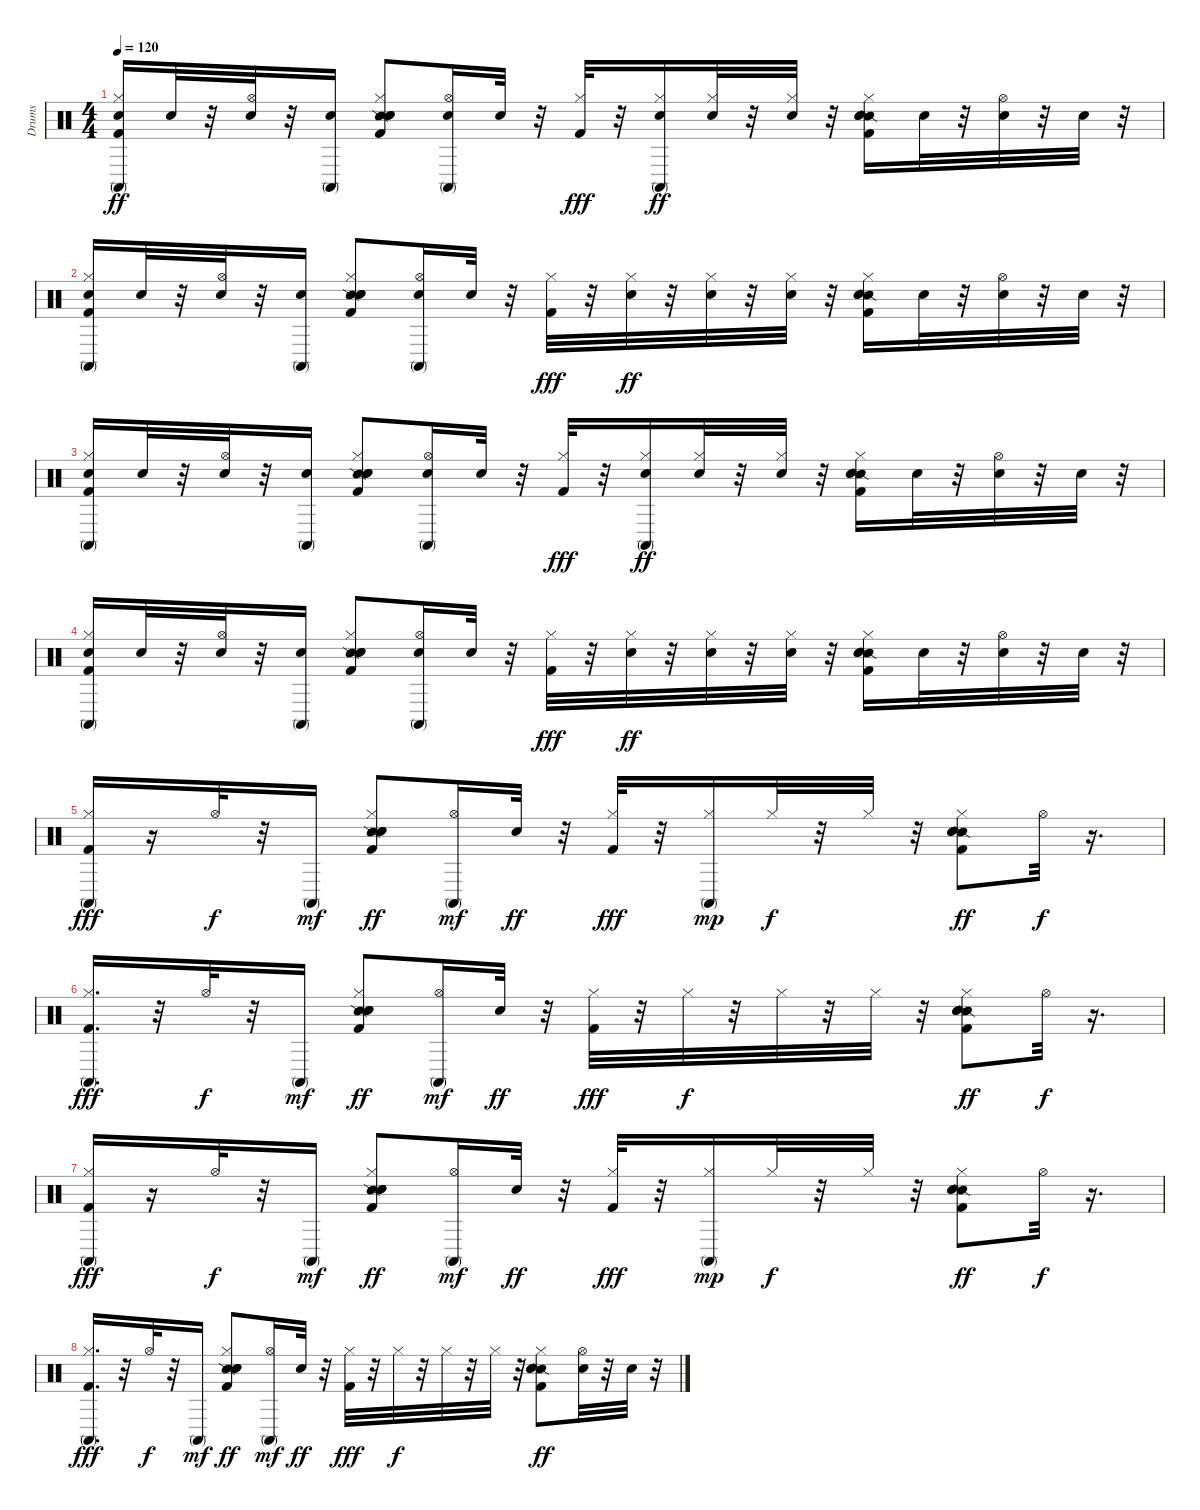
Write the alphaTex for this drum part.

\track ("Drums" "Drums") {instrument percussion}
\staff {score}
\articulation defaults
\ts (4 4)
\tempo 120
\clef neutral
\ks c
("Conga high (mute)" "Kick (hit) 2" "Snare (hit) 2" "Hi-Hat (closed)").16{dy ff} "Snare (hit) 2".32 r.32 ("Snare (hit) 2" "Hi-Hat (open)").32 r.32 ("Conga high (mute)" "Snare (hit) 2").16 ("Snare (side stick) 2" "Kick (hit) 2" "Snare (hit) 2" "Hi-Hat (closed)" "Hand Clap (hit)").8 ("Conga high (mute)" "Snare (hit) 2" "Hi-Hat (open)").16 "Snare (hit) 2".32 r.32 ("Kick (hit) 2" "Hi-Hat (closed)").32{dy fff} r.32 ("Conga high (mute)" "Snare (hit) 2" "Hi-Hat (closed)").16{dy ff} ("Snare (hit) 2" "Hi-Hat (closed)").32 r.32 ("Snare (hit) 2" "Hi-Hat (closed)").32 r.32 ("Snare (side stick) 2" "Kick (hit) 2" "Snare (hit) 2" "Hi-Hat (closed)" "Hand Clap (hit)").16 "Snare (hit) 2".32 r.32 ("Snare (hit) 2" "Hi-Hat (open)").32 r.32 "Snare (hit) 2".32 r.32 |
("Conga high (mute)" "Kick (hit) 2" "Snare (hit) 2" "Hi-Hat (closed)").16 "Snare (hit) 2".32 r.32 ("Snare (hit) 2" "Hi-Hat (open)").32 r.32 ("Conga high (mute)" "Snare (hit) 2").16 ("Snare (side stick) 2" "Kick (hit) 2" "Snare (hit) 2" "Hi-Hat (closed)" "Hand Clap (hit)").8 ("Conga high (mute)" "Snare (hit) 2" "Hi-Hat (open)").16 "Snare (hit) 2".32 r.32 ("Kick (hit) 2" "Hi-Hat (closed)").32{dy fff} r.32 ("Snare (hit) 2" "Hi-Hat (closed)").32{dy ff} r.32 ("Snare (hit) 2" "Hi-Hat (closed)").32 r.32 ("Snare (hit) 2" "Hi-Hat (closed)").32 r.32 ("Snare (side stick) 2" "Kick (hit) 2" "Snare (hit) 2" "Hi-Hat (closed)" "Hand Clap (hit)").16 "Snare (hit) 2".32 r.32 ("Snare (hit) 2" "Hi-Hat (open)").32 r.32 "Snare (hit) 2".32 r.32 |
("Conga high (mute)" "Kick (hit) 2" "Snare (hit) 2" "Hi-Hat (closed)").16 "Snare (hit) 2".32 r.32 ("Snare (hit) 2" "Hi-Hat (open)").32 r.32 ("Conga high (mute)" "Snare (hit) 2").16 ("Snare (side stick) 2" "Kick (hit) 2" "Snare (hit) 2" "Hi-Hat (closed)" "Hand Clap (hit)").8 ("Conga high (mute)" "Snare (hit) 2" "Hi-Hat (open)").16 "Snare (hit) 2".32 r.32 ("Kick (hit) 2" "Hi-Hat (closed)").32{dy fff} r.32 ("Conga high (mute)" "Snare (hit) 2" "Hi-Hat (closed)").16{dy ff} ("Snare (hit) 2" "Hi-Hat (closed)").32 r.32 ("Snare (hit) 2" "Hi-Hat (closed)").32 r.32 ("Snare (side stick) 2" "Kick (hit) 2" "Snare (hit) 2" "Hi-Hat (closed)" "Hand Clap (hit)").16 "Snare (hit) 2".32 r.32 ("Snare (hit) 2" "Hi-Hat (open)").32 r.32 "Snare (hit) 2".32 r.32 |
("Conga high (mute)" "Kick (hit) 2" "Snare (hit) 2" "Hi-Hat (closed)").16 "Snare (hit) 2".32 r.32 ("Snare (hit) 2" "Hi-Hat (open)").32 r.32 ("Conga high (mute)" "Snare (hit) 2").16 ("Snare (side stick) 2" "Kick (hit) 2" "Snare (hit) 2" "Hi-Hat (closed)" "Hand Clap (hit)").8 ("Conga high (mute)" "Snare (hit) 2" "Hi-Hat (open)").16 "Snare (hit) 2".32 r.32 ("Kick (hit) 2" "Hi-Hat (closed)").32{dy fff} r.32 ("Snare (hit) 2" "Hi-Hat (closed)").32{dy ff} r.32 ("Snare (hit) 2" "Hi-Hat (closed)").32 r.32 ("Snare (hit) 2" "Hi-Hat (closed)").32 r.32 ("Snare (side stick) 2" "Kick (hit) 2" "Snare (hit) 2" "Hi-Hat (closed)" "Hand Clap (hit)").16 "Snare (hit) 2".32 r.32 ("Snare (hit) 2" "Hi-Hat (open)").32 r.32 "Snare (hit) 2".32 r.32 |
("Conga high (mute)" "Kick (hit) 2" "Hi-Hat (closed)").16{dy fff} r.16 "Hi-Hat (open)".32{dy f} r.32 "Conga high (mute)".16{dy mf} ("Snare (side stick) 2" "Kick (hit) 2" "Snare (hit) 2" "Hi-Hat (closed)" "Hand Clap (hit)").8{dy ff} ("Conga high (mute)" "Hi-Hat (open)").16{dy mf} "Snare (hit) 2".32{dy ff} r.32 ("Kick (hit) 2" "Hi-Hat (closed)").32{dy fff} r.32 ("Conga high (mute)" "Hi-Hat (closed)").16{dy mp} "Hi-Hat (closed)".32{dy f} r.32 "Hi-Hat (closed)".32 r.32 ("Snare (side stick) 2" "Kick (hit) 2" "Snare (hit) 2" "Hi-Hat (closed)" "Hand Clap (hit)").8{dy ff} "Hi-Hat (open)".32{dy f} r.16{d} |
("Conga high (mute)" "Kick (hit) 2" "Hi-Hat (closed)").16{d dy fff} r.32 "Hi-Hat (open)".32{dy f} r.32 "Conga high (mute)".16{dy mf} ("Snare (side stick) 2" "Kick (hit) 2" "Snare (hit) 2" "Hi-Hat (closed)" "Hand Clap (hit)").8{dy ff} ("Conga high (mute)" "Hi-Hat (open)").16{dy mf} "Snare (hit) 2".32{dy ff} r.32 ("Kick (hit) 2" "Hi-Hat (closed)").32{dy fff} r.32 "Hi-Hat (closed)".32{dy f} r.32 "Hi-Hat (closed)".32 r.32 "Hi-Hat (closed)".32 r.32 ("Snare (side stick) 2" "Kick (hit) 2" "Snare (hit) 2" "Hi-Hat (closed)" "Hand Clap (hit)").8{dy ff} "Hi-Hat (open)".32{dy f} r.16{d} |
("Conga high (mute)" "Kick (hit) 2" "Hi-Hat (closed)").16{dy fff} r.16 "Hi-Hat (open)".32{dy f} r.32 "Conga high (mute)".16{dy mf} ("Snare (side stick) 2" "Kick (hit) 2" "Snare (hit) 2" "Hi-Hat (closed)" "Hand Clap (hit)").8{dy ff} ("Conga high (mute)" "Hi-Hat (open)").16{dy mf} "Snare (hit) 2".32{dy ff} r.32 ("Kick (hit) 2" "Hi-Hat (closed)").32{dy fff} r.32 ("Conga high (mute)" "Hi-Hat (closed)").16{dy mp} "Hi-Hat (closed)".32{dy f} r.32 "Hi-Hat (closed)".32 r.32 ("Snare (side stick) 2" "Kick (hit) 2" "Snare (hit) 2" "Hi-Hat (closed)" "Hand Clap (hit)").8{dy ff} "Hi-Hat (open)".32{dy f} r.16{d} |
("Conga high (mute)" "Kick (hit) 2" "Hi-Hat (closed)").16{d dy fff} r.32 "Hi-Hat (open)".32{dy f} r.32 "Conga high (mute)".16{dy mf} ("Snare (side stick) 2" "Kick (hit) 2" "Snare (hit) 2" "Hi-Hat (closed)" "Hand Clap (hit)").8{dy ff} ("Conga high (mute)" "Hi-Hat (open)").16{dy mf} "Snare (hit) 2".32{dy ff} r.32 ("Kick (hit) 2" "Hi-Hat (closed)").32{dy fff} r.32 "Hi-Hat (closed)".32{dy f} r.32 "Hi-Hat (closed)".32 r.32 "Hi-Hat (closed)".32 r.32 ("Snare (side stick) 2" "Kick (hit) 2" "Snare (hit) 2" "Hi-Hat (closed)" "Hand Clap (hit)").8{dy ff} ("Snare (hit) 2" "Hi-Hat (open)").32 r.32 "Snare (hit) 2".32 r.32
